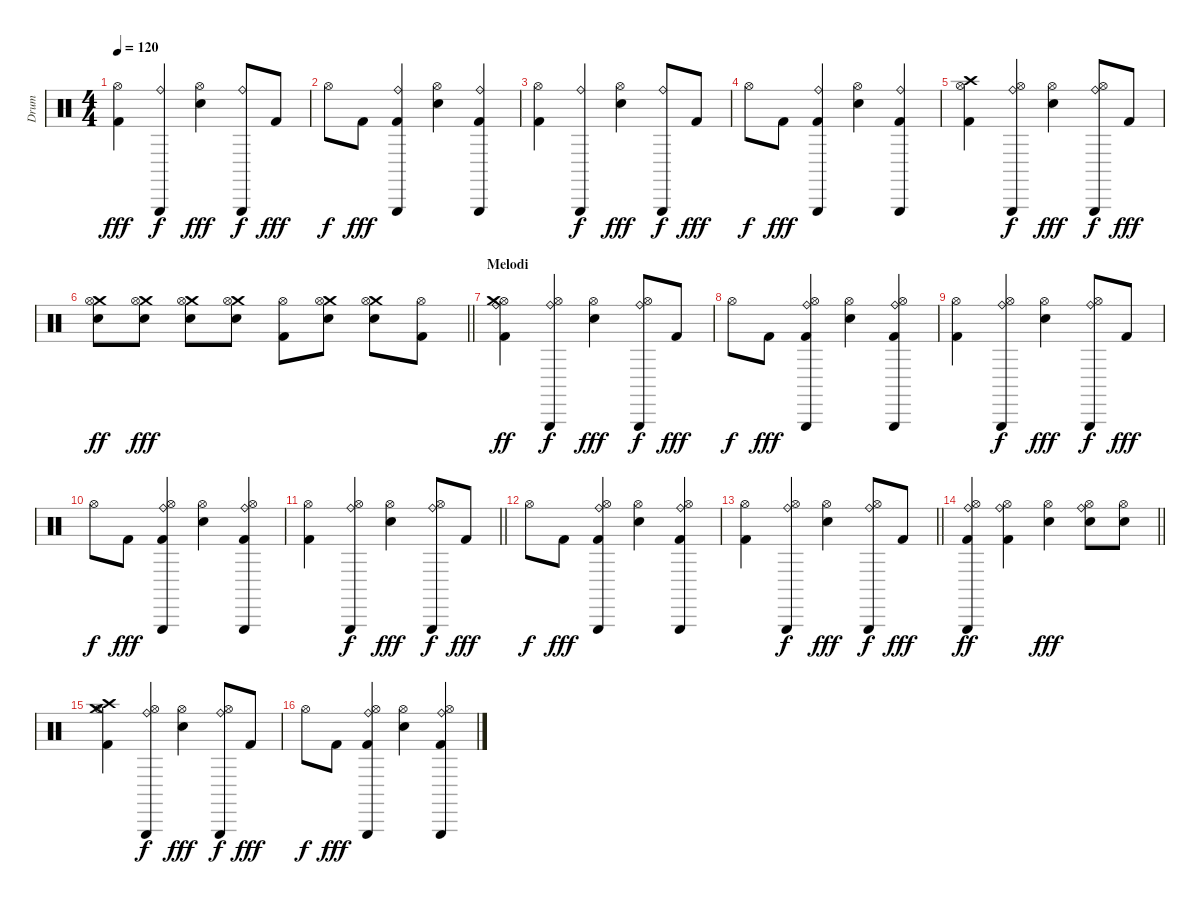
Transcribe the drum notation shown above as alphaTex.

\track ("Drum" "Drum") {instrument percussion}
\staff {score}
\articulation defaults
\ts (4 4)
\tempo 120
\clef neutral
\ks c
("Kick (hit) 2" "Hi-Hat (open)").4{dy fff} ("Ride (bell)" "Triangle (hit)").4{dy f} ("Electric Snare (hit)" "Hi-Hat (open)").4{dy fff} ("Ride (bell)" "Triangle (hit)").8{dy f} "Kick (hit) 2".8{dy fff} |
"Hi-Hat (open)".8{dy f} "Kick (hit) 2".8{dy fff} ("Kick (hit) 2" "Ride (bell)" "Triangle (hit)").4 ("Electric Snare (hit)" "Hi-Hat (open)").4 ("Kick (hit) 2" "Ride (bell)" "Triangle (hit)").4 |
("Kick (hit) 2" "Hi-Hat (open)").4 ("Ride (bell)" "Triangle (hit)").4{dy f} ("Electric Snare (hit)" "Hi-Hat (open)").4{dy fff} ("Ride (bell)" "Triangle (hit)").8{dy f} "Kick (hit) 2".8{dy fff} |
"Hi-Hat (open)".8{dy f} "Kick (hit) 2".8{dy fff} ("Kick (hit) 2" "Ride (bell)" "Triangle (hit)").4 ("Electric Snare (hit)" "Hi-Hat (open)").4 ("Kick (hit) 2" "Ride (bell)" "Triangle (hit)").4 |
("Kick (hit) 2" "Crash high (hit)" "Hi-Hat (open)").4 ("Hi-Hat (open)" "Ride (bell)" "Triangle (hit)").4{dy f} ("Electric Snare (hit)" "Hi-Hat (open)").4{dy fff} ("Hi-Hat (open)" "Ride (bell)" "Triangle (hit)").8{dy f} "Kick (hit) 2".8{dy fff} |
\barLineRight lightlight
("Crash medium (hit)" "Electric Snare (hit)" "Hi-Hat (open)").8{dy ff} ("Crash medium (hit)" "Hi-Hat (open)" "Electric Snare (hit)").8{dy fff} ("Crash medium (hit)" "Hi-Hat (open)" "Electric Snare (hit)").8 ("Crash medium (hit)" "Hi-Hat (open)" "Electric Snare (hit)").8 ("Hi-Hat (open)" "Kick (hit) 2").8 ("Crash medium (hit)" "Hi-Hat (open)" "Electric Snare (hit)").8 ("Crash medium (hit)" "Hi-Hat (open)" "Electric Snare (hit)").8 ("Hi-Hat (open)" "Kick (hit) 2").8 |
\section ("" "Melodi")
("Kick (hit) 2" "Hi-Hat (open)" "Crash medium (hit)" "Ride (bell)").4{dy ff} ("Hi-Hat (open)" "Ride (bell)" "Triangle (hit)").4{dy f} ("Electric Snare (hit)" "Hi-Hat (open)").4{dy fff} ("Hi-Hat (open)" "Ride (bell)" "Triangle (hit)").8{dy f} "Kick (hit) 2".8{dy fff} |
"Hi-Hat (open)".8{dy f} "Kick (hit) 2".8{dy fff} ("Kick (hit) 2" "Hi-Hat (open)" "Ride (bell)" "Triangle (hit)").4 ("Electric Snare (hit)" "Hi-Hat (open)").4 ("Kick (hit) 2" "Hi-Hat (open)" "Ride (bell)" "Triangle (hit)").4 |
("Kick (hit) 2" "Hi-Hat (open)").4 ("Hi-Hat (open)" "Ride (bell)" "Triangle (hit)").4{dy f} ("Electric Snare (hit)" "Hi-Hat (open)").4{dy fff} ("Hi-Hat (open)" "Ride (bell)" "Triangle (hit)").8{dy f} "Kick (hit) 2".8{dy fff} |
"Hi-Hat (open)".8{dy f} "Kick (hit) 2".8{dy fff} ("Kick (hit) 2" "Hi-Hat (open)" "Ride (bell)" "Triangle (hit)").4 ("Electric Snare (hit)" "Hi-Hat (open)").4 ("Kick (hit) 2" "Hi-Hat (open)" "Ride (bell)" "Triangle (hit)").4 |
\barLineRight lightlight
("Kick (hit) 2" "Hi-Hat (open)").4 ("Hi-Hat (open)" "Ride (bell)" "Triangle (hit)").4{dy f} ("Electric Snare (hit)" "Hi-Hat (open)").4{dy fff} ("Hi-Hat (open)" "Ride (bell)" "Triangle (hit)").8{dy f} "Kick (hit) 2".8{dy fff} |
"Hi-Hat (open)".8{dy f} "Kick (hit) 2".8{dy fff} ("Kick (hit) 2" "Hi-Hat (open)" "Ride (bell)" "Triangle (hit)").4 ("Electric Snare (hit)" "Hi-Hat (open)").4 ("Kick (hit) 2" "Hi-Hat (open)" "Ride (bell)" "Triangle (hit)").4 |
\barLineRight lightlight
("Kick (hit) 2" "Hi-Hat (open)").4 ("Hi-Hat (open)" "Ride (bell)" "Triangle (hit)").4{dy f} ("Electric Snare (hit)" "Hi-Hat (open)").4{dy fff} ("Hi-Hat (open)" "Ride (bell)" "Triangle (hit)").8{dy f} "Kick (hit) 2".8{dy fff} |
\barLineRight lightlight
("Ride (bell)" "Triangle (hit)" "Kick (hit) 2" "Hi-Hat (open)").4{dy ff} ("Hi-Hat (open)" "Kick (hit) 2" "Ride (bell)").4 ("Hi-Hat (open)" "Electric Snare (hit)").4{dy fff} ("Hi-Hat (open)" "Electric Snare (hit)" "Ride (bell)").8 ("Hi-Hat (open)" "Electric Snare (hit)").8 |
\section ("" "")
("Kick (hit) 2" "Crash high (hit)" "Hi-Hat (open)" "Crash medium (hit)").4 ("Hi-Hat (open)" "Ride (bell)" "Triangle (hit)").4{dy f} ("Electric Snare (hit)" "Hi-Hat (open)").4{dy fff} ("Hi-Hat (open)" "Ride (bell)" "Triangle (hit)").8{dy f} "Kick (hit) 2".8{dy fff} |
"Hi-Hat (open)".8{dy f} "Kick (hit) 2".8{dy fff} ("Kick (hit) 2" "Hi-Hat (open)" "Ride (bell)" "Triangle (hit)").4 ("Electric Snare (hit)" "Hi-Hat (open)").4 ("Kick (hit) 2" "Hi-Hat (open)" "Ride (bell)" "Triangle (hit)").4
